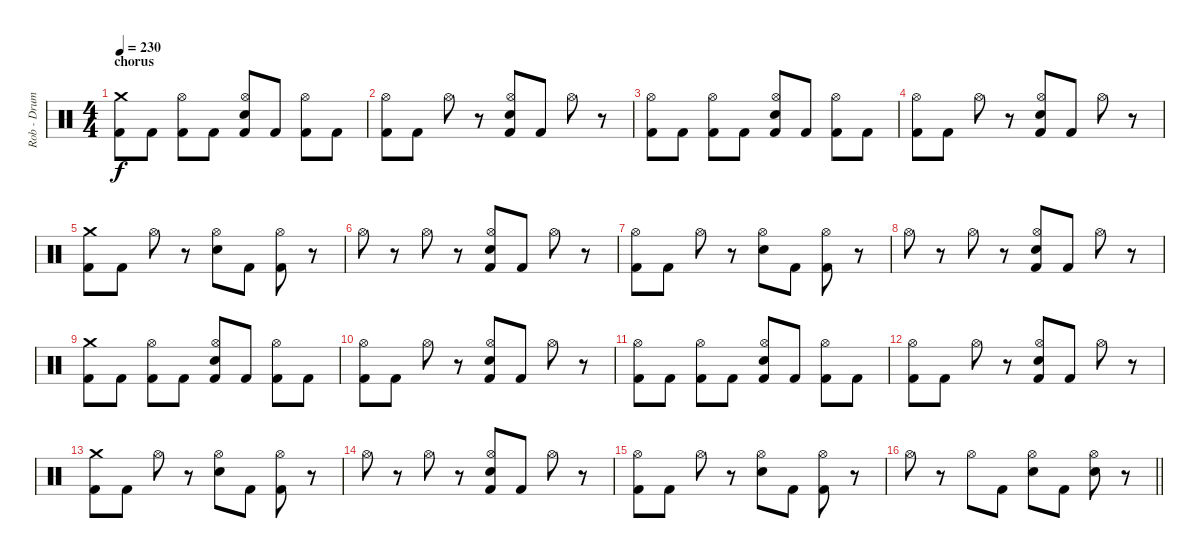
\track ("Rob - Drums" "Rob - Drum") {instrument percussion}
\staff {score}
\articulation defaults
\ts (4 4)
\section ("" "chorus")
\tempo 230
\clef neutral
\ks c
("Crash medium (hit)" "Kick (hit) 2").8{dy f} "Kick (hit) 2".8 ("Hi-Hat (open)" "Kick (hit) 2").8 "Kick (hit) 2".8 ("Hi-Hat (open)" "Electric Snare (hit)" "Kick (hit) 2").8 "Kick (hit) 2".8 ("Hi-Hat (open)" "Kick (hit) 2").8 "Kick (hit) 2".8 |
("Hi-Hat (open)" "Kick (hit) 2").8 "Kick (hit) 2".8 "Hi-Hat (open)".8 r.8 ("Hi-Hat (open)" "Electric Snare (hit)" "Kick (hit) 2").8 "Kick (hit) 2".8 "Hi-Hat (open)".8 r.8 |
("Hi-Hat (open)" "Kick (hit) 2").8 "Kick (hit) 2".8 ("Hi-Hat (open)" "Kick (hit) 2").8 "Kick (hit) 2".8 ("Hi-Hat (open)" "Electric Snare (hit)" "Kick (hit) 2").8 "Kick (hit) 2".8 ("Hi-Hat (open)" "Kick (hit) 2").8 "Kick (hit) 2".8 |
("Hi-Hat (open)" "Kick (hit) 2").8 "Kick (hit) 2".8 "Hi-Hat (open)".8 r.8 ("Hi-Hat (open)" "Electric Snare (hit)" "Kick (hit) 2").8 "Kick (hit) 2".8 "Hi-Hat (open)".8 r.8 |
("Crash medium (hit)" "Kick (hit) 2").8 "Kick (hit) 2".8 "Hi-Hat (open)".8 r.8 ("Hi-Hat (open)" "Electric Snare (hit)").8 "Kick (hit) 2".8 ("Hi-Hat (open)" "Kick (hit) 2").8 r.8 |
"Hi-Hat (open)".8 r.8 "Hi-Hat (open)".8 r.8 ("Hi-Hat (open)" "Electric Snare (hit)" "Kick (hit) 2").8 "Kick (hit) 2".8 "Hi-Hat (open)".8 r.8 |
("Hi-Hat (open)" "Kick (hit) 2").8 "Kick (hit) 2".8 "Hi-Hat (open)".8 r.8 ("Hi-Hat (open)" "Electric Snare (hit)").8 "Kick (hit) 2".8 ("Hi-Hat (open)" "Kick (hit) 2").8 r.8 |
"Hi-Hat (open)".8 r.8 "Hi-Hat (open)".8 r.8 ("Hi-Hat (open)" "Electric Snare (hit)" "Kick (hit) 2").8 "Kick (hit) 2".8 "Hi-Hat (open)".8 r.8 |
("Crash medium (hit)" "Kick (hit) 2").8 "Kick (hit) 2".8 ("Hi-Hat (open)" "Kick (hit) 2").8 "Kick (hit) 2".8 ("Hi-Hat (open)" "Electric Snare (hit)" "Kick (hit) 2").8 "Kick (hit) 2".8 ("Hi-Hat (open)" "Kick (hit) 2").8 "Kick (hit) 2".8 |
("Hi-Hat (open)" "Kick (hit) 2").8 "Kick (hit) 2".8 "Hi-Hat (open)".8 r.8 ("Hi-Hat (open)" "Electric Snare (hit)" "Kick (hit) 2").8 "Kick (hit) 2".8 "Hi-Hat (open)".8 r.8 |
("Hi-Hat (open)" "Kick (hit) 2").8 "Kick (hit) 2".8 ("Hi-Hat (open)" "Kick (hit) 2").8 "Kick (hit) 2".8 ("Hi-Hat (open)" "Electric Snare (hit)" "Kick (hit) 2").8 "Kick (hit) 2".8 ("Hi-Hat (open)" "Kick (hit) 2").8 "Kick (hit) 2".8 |
("Hi-Hat (open)" "Kick (hit) 2").8 "Kick (hit) 2".8 "Hi-Hat (open)".8 r.8 ("Hi-Hat (open)" "Electric Snare (hit)" "Kick (hit) 2").8 "Kick (hit) 2".8 "Hi-Hat (open)".8 r.8 |
("Crash medium (hit)" "Kick (hit) 2").8 "Kick (hit) 2".8 "Hi-Hat (open)".8 r.8 ("Hi-Hat (open)" "Electric Snare (hit)").8 "Kick (hit) 2".8 ("Hi-Hat (open)" "Kick (hit) 2").8 r.8 |
"Hi-Hat (open)".8 r.8 "Hi-Hat (open)".8 r.8 ("Hi-Hat (open)" "Electric Snare (hit)" "Kick (hit) 2").8 "Kick (hit) 2".8 "Hi-Hat (open)".8 r.8 |
("Hi-Hat (open)" "Kick (hit) 2").8 "Kick (hit) 2".8 "Hi-Hat (open)".8 r.8 ("Hi-Hat (open)" "Electric Snare (hit)").8 "Kick (hit) 2".8 ("Hi-Hat (open)" "Kick (hit) 2").8 r.8 |
\barLineRight lightlight "Hi-Hat (open)".8
r.8 "Hi-Hat (open)".8 "Kick (hit) 2".8 ("Hi-Hat (open)" "Electric Snare (hit)").8 "Kick (hit) 2".8 ("Hi-Hat (open)" "Electric Snare (hit)").8 r.8
